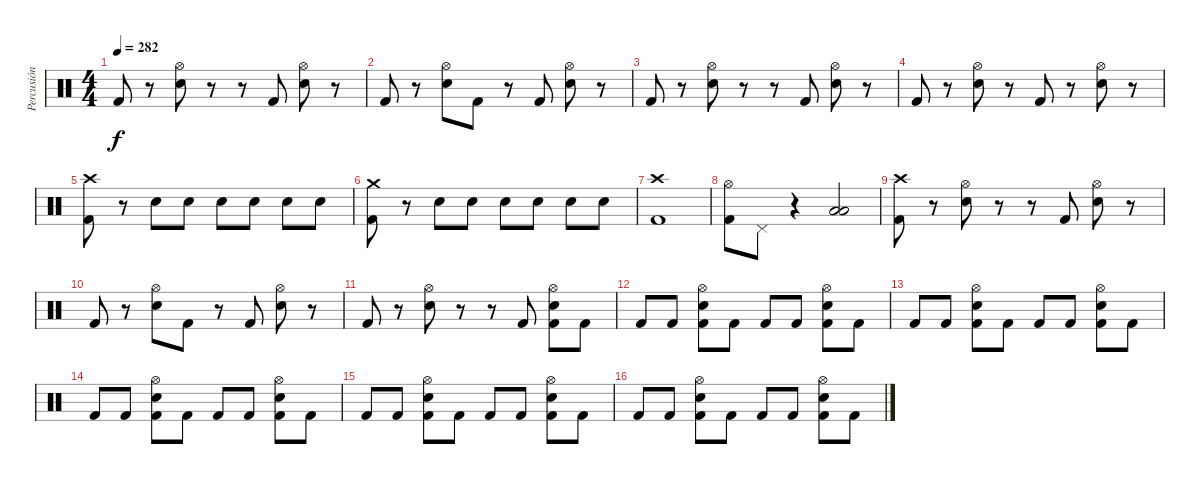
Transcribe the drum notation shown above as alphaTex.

\track ("Percusión" "Percusión") {instrument percussion}
\staff {score}
\articulation defaults
\ts (4 4)
\tempo 282
\clef neutral
\ks c "Kick (hit) 2".8{dy f}
r.8 ("Snare (hit) 2" "Hi-Hat (open)").8 r.8 r.8 "Kick (hit) 2".8 ("Snare (hit) 2" "Hi-Hat (open)").8 r.8 |
"Kick (hit) 2".8 r.8 ("Snare (hit) 2" "Hi-Hat (open)").8 "Kick (hit) 2".8 r.8 "Kick (hit) 2".8 ("Snare (hit) 2" "Hi-Hat (open)").8 r.8 |
"Kick (hit) 2".8 r.8 ("Snare (hit) 2" "Hi-Hat (open)").8 r.8 r.8 "Kick (hit) 2".8 ("Snare (hit) 2" "Hi-Hat (open)").8 r.8 |
"Kick (hit) 2".8 r.8 ("Snare (hit) 2" "Hi-Hat (open)").8 r.8 "Kick (hit) 2".8 r.8 ("Snare (hit) 2" "Hi-Hat (open)").8 r.8 |
("Kick (hit) 2" "Crash high (hit)").8 r.8 "Snare (hit) 2".8 "Snare (hit) 2".8 "Snare (hit) 2".8 "Snare (hit) 2".8 "Snare (hit) 2".8 "Snare (hit) 2".8 |
("Kick (hit) 2" "Crash medium (hit)").8 r.8 "Snare (hit) 2".8 "Snare (hit) 2".8 "Snare (hit) 2".8 "Snare (hit) 2".8 "Snare (hit) 2".8 "Snare (hit) 2".8 |
("Kick (hit) 2" "Crash high (hit)").1 |
("Kick (hit) 2" "Hi-Hat (open)").8 "Pedal Hi-Hat (hit)".8 r.4 ("Low Tom (hit)" "Low Floor Tom (hit)").2 |
("Kick (hit) 2" "Crash high (hit)").8 r.8 ("Snare (hit) 2" "Hi-Hat (open)").8 r.8 r.8 "Kick (hit) 2".8 ("Snare (hit) 2" "Hi-Hat (open)").8 r.8 |
"Kick (hit) 2".8 r.8 ("Snare (hit) 2" "Hi-Hat (open)").8 "Kick (hit) 2".8 r.8 "Kick (hit) 2".8 ("Snare (hit) 2" "Hi-Hat (open)").8 r.8 |
"Kick (hit) 2".8 r.8 ("Snare (hit) 2" "Hi-Hat (open)").8 r.8 r.8 "Kick (hit) 2".8 ("Kick (hit) 2" "Snare (hit) 2" "Hi-Hat (open)").8 "Kick (hit) 2".8 |
"Kick (hit) 2".8 "Kick (hit) 2".8 ("Kick (hit) 2" "Snare (hit) 2" "Hi-Hat (open)").8 "Kick (hit) 2".8 "Kick (hit) 2".8 "Kick (hit) 2".8 ("Kick (hit) 2" "Snare (hit) 2" "Hi-Hat (open)").8 "Kick (hit) 2".8 |
"Kick (hit) 2".8 "Kick (hit) 2".8 ("Kick (hit) 2" "Snare (hit) 2" "Hi-Hat (open)").8 "Kick (hit) 2".8 "Kick (hit) 2".8 "Kick (hit) 2".8 ("Kick (hit) 2" "Snare (hit) 2" "Hi-Hat (open)").8 "Kick (hit) 2".8 |
"Kick (hit) 2".8 "Kick (hit) 2".8 ("Kick (hit) 2" "Snare (hit) 2" "Hi-Hat (open)").8 "Kick (hit) 2".8 "Kick (hit) 2".8 "Kick (hit) 2".8 ("Kick (hit) 2" "Snare (hit) 2" "Hi-Hat (open)").8 "Kick (hit) 2".8 |
"Kick (hit) 2".8 "Kick (hit) 2".8 ("Kick (hit) 2" "Snare (hit) 2" "Hi-Hat (open)").8 "Kick (hit) 2".8 "Kick (hit) 2".8 "Kick (hit) 2".8 ("Kick (hit) 2" "Snare (hit) 2" "Hi-Hat (open)").8 "Kick (hit) 2".8 |
"Kick (hit) 2".8 "Kick (hit) 2".8 ("Kick (hit) 2" "Snare (hit) 2" "Hi-Hat (open)").8 "Kick (hit) 2".8 "Kick (hit) 2".8 "Kick (hit) 2".8 ("Kick (hit) 2" "Snare (hit) 2" "Hi-Hat (open)").8 "Kick (hit) 2".8
